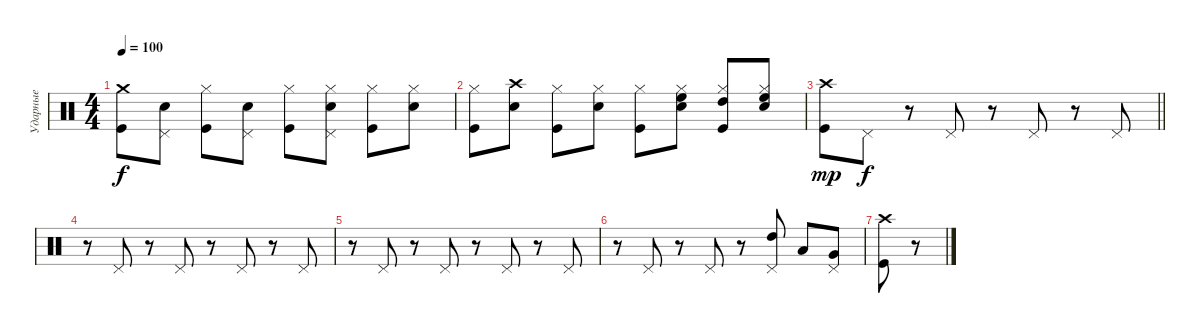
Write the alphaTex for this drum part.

\track ("Ударные" "Ударные") {instrument percussion}
\staff {score}
\articulation defaults
\ts (4 4)
\tempo 100
\clef neutral
\ks c
("Kick (hit)" "Crash medium (hit)").8{dy f} ("Snare (hit) 2" "Pedal Hi-Hat (hit)").8 ("Kick (hit)" "Hi-Hat (closed)").8 ("Snare (hit) 2" "Pedal Hi-Hat (hit)").8 ("Kick (hit)" "Hi-Hat (closed)").8 ("Snare (hit) 2" "Hi-Hat (closed)" "Pedal Hi-Hat (hit)").8 ("Hi-Hat (closed)" "Kick (hit)").8 ("Snare (hit) 2" "Hi-Hat (closed)").8 |
("Hi-Hat (closed)" "Kick (hit)").8 ("Crash high (hit)" "Snare (hit) 2").8 ("Kick (hit)" "Hi-Hat (closed)").8 ("Snare (hit) 2" "Hi-Hat (closed)").8 ("Kick (hit)" "Hi-Hat (closed)").8 ("Snare (hit) 2" "Hi-Hat (closed)" "High Floor Tom (hit)").8 ("Kick (hit)" "Hi-Hat (closed)" "High Tom (hit)").8 ("Snare (hit) 2" "Hi-Hat (closed)" "High Floor Tom (hit)").8 |
\barLineRight lightlight
("Kick (hit)" "Crash high (hit)").8{dy mp} "Pedal Hi-Hat (hit)".8{dy f} r.8 "Pedal Hi-Hat (hit)".8 r.8 "Pedal Hi-Hat (hit)".8 r.8 "Pedal Hi-Hat (hit)".8 |
r.8 "Pedal Hi-Hat (hit)".8 r.8 "Pedal Hi-Hat (hit)".8 r.8 "Pedal Hi-Hat (hit)".8 r.8 "Pedal Hi-Hat (hit)".8 |
r.8 "Pedal Hi-Hat (hit)".8 r.8 "Pedal Hi-Hat (hit)".8 r.8 "Pedal Hi-Hat (hit)".8 r.8 "Pedal Hi-Hat (hit)".8 |
r.8 "Pedal Hi-Hat (hit)".8 r.8 "Pedal Hi-Hat (hit)".8 r.8 ("Pedal Hi-Hat (hit)" "High Tom (hit)").8 "Low Tom (hit)".8 ("Pedal Hi-Hat (hit)" "Very Low Tom (hit)").8 |
("Crash high (hit)" "Kick (hit)").8 r.8{volume 0}
